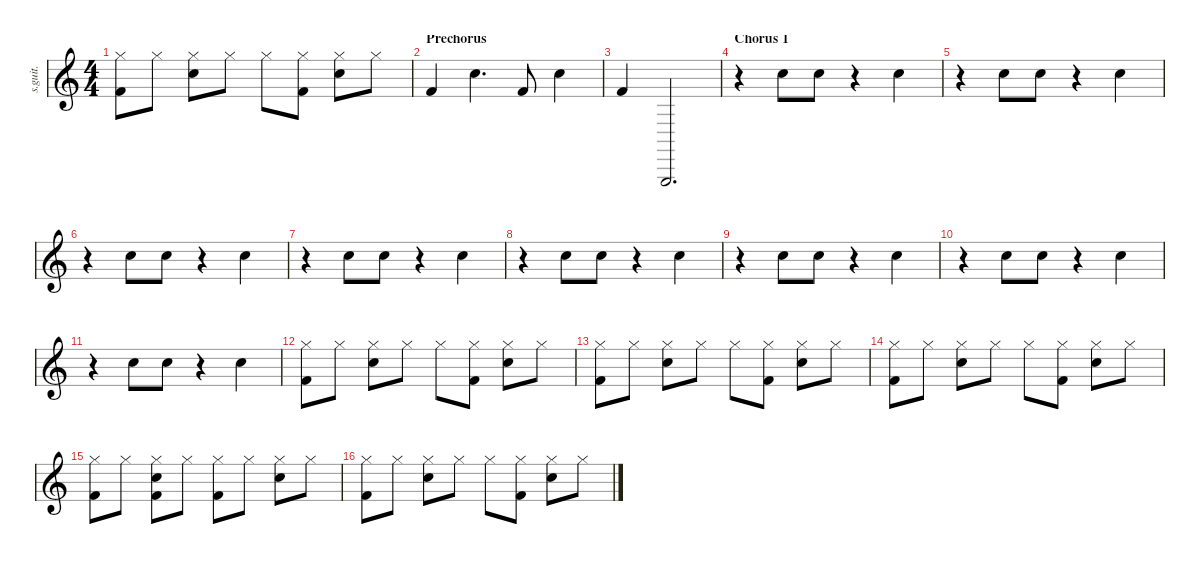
\defaultSystemsLayout 4
\hideDynamics
\bracketExtendMode nobrackets
\track ("Drums (Russel Hobbs)" "s.guit.") {instrument percussion}
\staff {score}
\articulation defaults
\ts (4 4)
\tempo (139 hide)
\clef g2
\ks c
("Hi-Hat (closed)" "Kick (hit) 2").8{lyrics (0 "") lyrics (1 "") lyrics (2 "") lyrics (3 "") lyrics (4 "") dy f} "Hi-Hat (closed)".8{lyrics (0 "") lyrics (1 "") lyrics (2 "") lyrics (3 "") lyrics (4 "")} ("Hi-Hat (closed)" "Snare (hit) 2").8{lyrics (0 "") lyrics (1 "") lyrics (2 "") lyrics (3 "") lyrics (4 "")} "Hi-Hat (closed)".8{lyrics (0 "") lyrics (1 "") lyrics (2 "") lyrics (3 "") lyrics (4 "")} "Hi-Hat (closed)".8{lyrics (0 "") lyrics (1 "") lyrics (2 "") lyrics (3 "") lyrics (4 "")} ("Hi-Hat (closed)" "Kick (hit) 2").8{lyrics (0 "") lyrics (1 "") lyrics (2 "") lyrics (3 "") lyrics (4 "")} ("Hi-Hat (closed)" "Snare (hit) 2").8{lyrics (0 "") lyrics (1 "") lyrics (2 "") lyrics (3 "") lyrics (4 "")} "Hi-Hat (closed)".8{lyrics (0 "") lyrics (1 "") lyrics (2 "") lyrics (3 "") lyrics (4 "")} |
\section ("" "Prechorus")
"Kick (hit) 2".4{lyrics (0 "") lyrics (1 "") lyrics (2 "") lyrics (3 "") lyrics (4 "") dy fff} "Snare (hit) 2".4{d lyrics (0 "") lyrics (1 "") lyrics (2 "") lyrics (3 "") lyrics (4 "") dy ff} "Kick (hit) 2".8{lyrics (0 "") lyrics (1 "") lyrics (2 "") lyrics (3 "") lyrics (4 "") dy fff} "Snare (hit) 2".4{lyrics (0 "") lyrics (1 "") lyrics (2 "") lyrics (3 "") lyrics (4 "") dy ff} |
"Kick (hit) 2".4{lyrics (0 "") lyrics (1 "") lyrics (2 "") lyrics (3 "") lyrics (4 "") dy fff} "Triangle (hit)".2{d lyrics (0 "") lyrics (1 "") lyrics (2 "") lyrics (3 "") lyrics (4 "") dy mp} |
\section ("" "Chorus 1")
r.4 "Snare (hit) 2".8{lyrics (0 "") lyrics (1 "") lyrics (2 "") lyrics (3 "") lyrics (4 "") dy mf} "Snare (hit) 2".8{lyrics (0 "") lyrics (1 "") lyrics (2 "") lyrics (3 "") lyrics (4 "")} r.4 "Snare (hit) 2".4{lyrics (0 "") lyrics (1 "") lyrics (2 "") lyrics (3 "") lyrics (4 "")} |
r.4 "Snare (hit) 2".8{lyrics (0 "") lyrics (1 "") lyrics (2 "") lyrics (3 "") lyrics (4 "")} "Snare (hit) 2".8{lyrics (0 "") lyrics (1 "") lyrics (2 "") lyrics (3 "") lyrics (4 "")} r.4 "Snare (hit) 2".4{lyrics (0 "") lyrics (1 "") lyrics (2 "") lyrics (3 "") lyrics (4 "")} |
r.4 "Snare (hit) 2".8{lyrics (0 "") lyrics (1 "") lyrics (2 "") lyrics (3 "") lyrics (4 "")} "Snare (hit) 2".8{lyrics (0 "") lyrics (1 "") lyrics (2 "") lyrics (3 "") lyrics (4 "")} r.4 "Snare (hit) 2".4{lyrics (0 "") lyrics (1 "") lyrics (2 "") lyrics (3 "") lyrics (4 "")} |
r.4 "Snare (hit) 2".8{lyrics (0 "") lyrics (1 "") lyrics (2 "") lyrics (3 "") lyrics (4 "")} "Snare (hit) 2".8{lyrics (0 "") lyrics (1 "") lyrics (2 "") lyrics (3 "") lyrics (4 "")} r.4 "Snare (hit) 2".4{lyrics (0 "") lyrics (1 "") lyrics (2 "") lyrics (3 "") lyrics (4 "")} |
r.4 "Snare (hit) 2".8{lyrics (0 "") lyrics (1 "") lyrics (2 "") lyrics (3 "") lyrics (4 "")} "Snare (hit) 2".8{lyrics (0 "") lyrics (1 "") lyrics (2 "") lyrics (3 "") lyrics (4 "")} r.4 "Snare (hit) 2".4{lyrics (0 "") lyrics (1 "") lyrics (2 "") lyrics (3 "") lyrics (4 "")} |
r.4 "Snare (hit) 2".8{lyrics (0 "") lyrics (1 "") lyrics (2 "") lyrics (3 "") lyrics (4 "")} "Snare (hit) 2".8{lyrics (0 "") lyrics (1 "") lyrics (2 "") lyrics (3 "") lyrics (4 "")} r.4 "Snare (hit) 2".4{lyrics (0 "") lyrics (1 "") lyrics (2 "") lyrics (3 "") lyrics (4 "")} |
r.4 "Snare (hit) 2".8{lyrics (0 "") lyrics (1 "") lyrics (2 "") lyrics (3 "") lyrics (4 "")} "Snare (hit) 2".8{lyrics (0 "") lyrics (1 "") lyrics (2 "") lyrics (3 "") lyrics (4 "")} r.4 "Snare (hit) 2".4{lyrics (0 "") lyrics (1 "") lyrics (2 "") lyrics (3 "") lyrics (4 "")} |
r.4 "Snare (hit) 2".8{lyrics (0 "") lyrics (1 "") lyrics (2 "") lyrics (3 "") lyrics (4 "")} "Snare (hit) 2".8{lyrics (0 "") lyrics (1 "") lyrics (2 "") lyrics (3 "") lyrics (4 "")} r.4 "Snare (hit) 2".4{lyrics (0 "") lyrics (1 "") lyrics (2 "") lyrics (3 "") lyrics (4 "")} |
("Hi-Hat (closed)" "Kick (hit) 2").8{lyrics (0 "") lyrics (1 "") lyrics (2 "") lyrics (3 "") lyrics (4 "") dy f} "Hi-Hat (closed)".8{lyrics (0 "") lyrics (1 "") lyrics (2 "") lyrics (3 "") lyrics (4 "")} ("Hi-Hat (closed)" "Snare (hit) 2").8{lyrics (0 "") lyrics (1 "") lyrics (2 "") lyrics (3 "") lyrics (4 "")} "Hi-Hat (closed)".8{lyrics (0 "") lyrics (1 "") lyrics (2 "") lyrics (3 "") lyrics (4 "")} "Hi-Hat (closed)".8{lyrics (0 "") lyrics (1 "") lyrics (2 "") lyrics (3 "") lyrics (4 "")} ("Hi-Hat (closed)" "Kick (hit) 2").8{lyrics (0 "") lyrics (1 "") lyrics (2 "") lyrics (3 "") lyrics (4 "")} ("Hi-Hat (closed)" "Snare (hit) 2").8{lyrics (0 "") lyrics (1 "") lyrics (2 "") lyrics (3 "") lyrics (4 "")} "Hi-Hat (closed)".8{lyrics (0 "") lyrics (1 "") lyrics (2 "") lyrics (3 "") lyrics (4 "")} |
("Hi-Hat (closed)" "Kick (hit) 2").8{lyrics (0 "") lyrics (1 "") lyrics (2 "") lyrics (3 "") lyrics (4 "")} "Hi-Hat (closed)".8{lyrics (0 "") lyrics (1 "") lyrics (2 "") lyrics (3 "") lyrics (4 "")} ("Hi-Hat (closed)" "Snare (hit) 2").8{lyrics (0 "") lyrics (1 "") lyrics (2 "") lyrics (3 "") lyrics (4 "")} "Hi-Hat (closed)".8{lyrics (0 "") lyrics (1 "") lyrics (2 "") lyrics (3 "") lyrics (4 "")} "Hi-Hat (closed)".8{lyrics (0 "") lyrics (1 "") lyrics (2 "") lyrics (3 "") lyrics (4 "")} ("Hi-Hat (closed)" "Kick (hit) 2").8{lyrics (0 "") lyrics (1 "") lyrics (2 "") lyrics (3 "") lyrics (4 "")} ("Hi-Hat (closed)" "Snare (hit) 2").8{lyrics (0 "") lyrics (1 "") lyrics (2 "") lyrics (3 "") lyrics (4 "")} "Hi-Hat (closed)".8{lyrics (0 "") lyrics (1 "") lyrics (2 "") lyrics (3 "") lyrics (4 "")} |
("Hi-Hat (closed)" "Kick (hit) 2").8{lyrics (0 "") lyrics (1 "") lyrics (2 "") lyrics (3 "") lyrics (4 "")} "Hi-Hat (closed)".8{lyrics (0 "") lyrics (1 "") lyrics (2 "") lyrics (3 "") lyrics (4 "")} ("Hi-Hat (closed)" "Snare (hit) 2").8{lyrics (0 "") lyrics (1 "") lyrics (2 "") lyrics (3 "") lyrics (4 "")} "Hi-Hat (closed)".8{lyrics (0 "") lyrics (1 "") lyrics (2 "") lyrics (3 "") lyrics (4 "")} "Hi-Hat (closed)".8{lyrics (0 "") lyrics (1 "") lyrics (2 "") lyrics (3 "") lyrics (4 "")} ("Hi-Hat (closed)" "Kick (hit) 2").8{lyrics (0 "") lyrics (1 "") lyrics (2 "") lyrics (3 "") lyrics (4 "")} ("Hi-Hat (closed)" "Snare (hit) 2").8{lyrics (0 "") lyrics (1 "") lyrics (2 "") lyrics (3 "") lyrics (4 "")} "Hi-Hat (closed)".8{lyrics (0 "") lyrics (1 "") lyrics (2 "") lyrics (3 "") lyrics (4 "")} |
("Hi-Hat (closed)" "Kick (hit) 2").8{lyrics (0 "") lyrics (1 "") lyrics (2 "") lyrics (3 "") lyrics (4 "")} "Hi-Hat (closed)".8{lyrics (0 "") lyrics (1 "") lyrics (2 "") lyrics (3 "") lyrics (4 "")} ("Hi-Hat (closed)" "Snare (hit) 2" "Kick (hit) 2").8{lyrics (0 "") lyrics (1 "") lyrics (2 "") lyrics (3 "") lyrics (4 "")} "Hi-Hat (closed)".8{lyrics (0 "") lyrics (1 "") lyrics (2 "") lyrics (3 "") lyrics (4 "")} ("Hi-Hat (closed)" "Kick (hit) 2").8{lyrics (0 "") lyrics (1 "") lyrics (2 "") lyrics (3 "") lyrics (4 "")} "Hi-Hat (closed)".8{lyrics (0 "") lyrics (1 "") lyrics (2 "") lyrics (3 "") lyrics (4 "")} ("Hi-Hat (closed)" "Snare (hit) 2").8{lyrics (0 "") lyrics (1 "") lyrics (2 "") lyrics (3 "") lyrics (4 "")} "Hi-Hat (closed)".8{lyrics (0 "") lyrics (1 "") lyrics (2 "") lyrics (3 "") lyrics (4 "")} |
("Hi-Hat (closed)" "Kick (hit) 2").8{lyrics (0 "") lyrics (1 "") lyrics (2 "") lyrics (3 "") lyrics (4 "")} "Hi-Hat (closed)".8{lyrics (0 "") lyrics (1 "") lyrics (2 "") lyrics (3 "") lyrics (4 "")} ("Hi-Hat (closed)" "Snare (hit) 2").8{lyrics (0 "") lyrics (1 "") lyrics (2 "") lyrics (3 "") lyrics (4 "")} "Hi-Hat (closed)".8{lyrics (0 "") lyrics (1 "") lyrics (2 "") lyrics (3 "") lyrics (4 "")} "Hi-Hat (closed)".8{lyrics (0 "") lyrics (1 "") lyrics (2 "") lyrics (3 "") lyrics (4 "")} ("Hi-Hat (closed)" "Kick (hit) 2").8{lyrics (0 "") lyrics (1 "") lyrics (2 "") lyrics (3 "") lyrics (4 "")} ("Hi-Hat (closed)" "Snare (hit) 2").8{lyrics (0 "") lyrics (1 "") lyrics (2 "") lyrics (3 "") lyrics (4 "")} "Hi-Hat (closed)".8{lyrics (0 "") lyrics (1 "") lyrics (2 "") lyrics (3 "") lyrics (4 "")}
